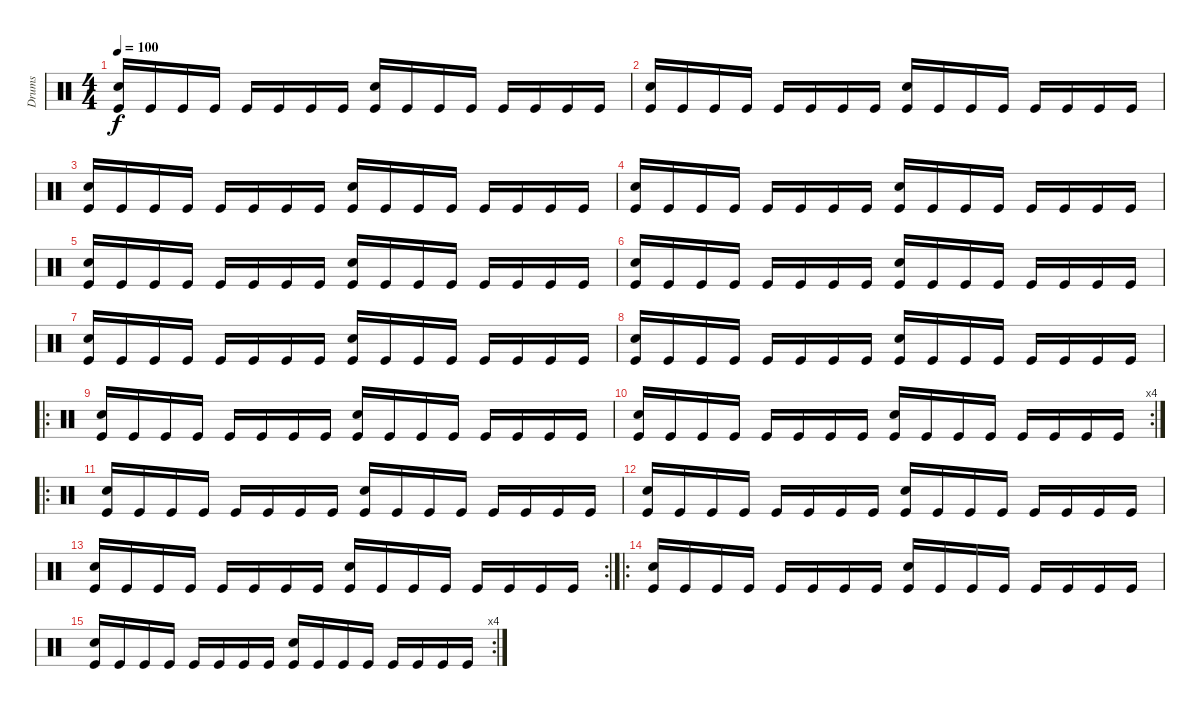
\track ("Drums" "Drums") {instrument percussion}
\staff {score}
\articulation defaults
\ts (4 4)
\tempo 100
\clef neutral
\ks c
("Electric Snare (hit)" "Kick (hit)").16{dy f} "Kick (hit)".16 "Kick (hit)".16 "Kick (hit)".16 "Kick (hit)".16 "Kick (hit)".16 "Kick (hit)".16 "Kick (hit)".16 ("Electric Snare (hit)" "Kick (hit)").16 "Kick (hit)".16 "Kick (hit)".16 "Kick (hit)".16 "Kick (hit)".16 "Kick (hit)".16 "Kick (hit)".16 "Kick (hit)".16 |
("Electric Snare (hit)" "Kick (hit)").16 "Kick (hit)".16 "Kick (hit)".16 "Kick (hit)".16 "Kick (hit)".16 "Kick (hit)".16 "Kick (hit)".16 "Kick (hit)".16 ("Electric Snare (hit)" "Kick (hit)").16 "Kick (hit)".16 "Kick (hit)".16 "Kick (hit)".16 "Kick (hit)".16 "Kick (hit)".16 "Kick (hit)".16 "Kick (hit)".16 |
("Electric Snare (hit)" "Kick (hit)").16 "Kick (hit)".16 "Kick (hit)".16 "Kick (hit)".16 "Kick (hit)".16 "Kick (hit)".16 "Kick (hit)".16 "Kick (hit)".16 ("Electric Snare (hit)" "Kick (hit)").16 "Kick (hit)".16 "Kick (hit)".16 "Kick (hit)".16 "Kick (hit)".16 "Kick (hit)".16 "Kick (hit)".16 "Kick (hit)".16 |
("Electric Snare (hit)" "Kick (hit)").16 "Kick (hit)".16 "Kick (hit)".16 "Kick (hit)".16 "Kick (hit)".16 "Kick (hit)".16 "Kick (hit)".16 "Kick (hit)".16 ("Electric Snare (hit)" "Kick (hit)").16 "Kick (hit)".16 "Kick (hit)".16 "Kick (hit)".16 "Kick (hit)".16 "Kick (hit)".16 "Kick (hit)".16 "Kick (hit)".16 |
("Electric Snare (hit)" "Kick (hit)").16 "Kick (hit)".16 "Kick (hit)".16 "Kick (hit)".16 "Kick (hit)".16 "Kick (hit)".16 "Kick (hit)".16 "Kick (hit)".16 ("Electric Snare (hit)" "Kick (hit)").16 "Kick (hit)".16 "Kick (hit)".16 "Kick (hit)".16 "Kick (hit)".16 "Kick (hit)".16 "Kick (hit)".16 "Kick (hit)".16 |
("Electric Snare (hit)" "Kick (hit)").16 "Kick (hit)".16 "Kick (hit)".16 "Kick (hit)".16 "Kick (hit)".16 "Kick (hit)".16 "Kick (hit)".16 "Kick (hit)".16 ("Electric Snare (hit)" "Kick (hit)").16 "Kick (hit)".16 "Kick (hit)".16 "Kick (hit)".16 "Kick (hit)".16 "Kick (hit)".16 "Kick (hit)".16 "Kick (hit)".16 |
("Electric Snare (hit)" "Kick (hit)").16 "Kick (hit)".16 "Kick (hit)".16 "Kick (hit)".16 "Kick (hit)".16 "Kick (hit)".16 "Kick (hit)".16 "Kick (hit)".16 ("Electric Snare (hit)" "Kick (hit)").16 "Kick (hit)".16 "Kick (hit)".16 "Kick (hit)".16 "Kick (hit)".16 "Kick (hit)".16 "Kick (hit)".16 "Kick (hit)".16 |
("Electric Snare (hit)" "Kick (hit)").16 "Kick (hit)".16 "Kick (hit)".16 "Kick (hit)".16 "Kick (hit)".16 "Kick (hit)".16 "Kick (hit)".16 "Kick (hit)".16 ("Electric Snare (hit)" "Kick (hit)").16 "Kick (hit)".16 "Kick (hit)".16 "Kick (hit)".16 "Kick (hit)".16 "Kick (hit)".16 "Kick (hit)".16 "Kick (hit)".16 |
\ro
("Electric Snare (hit)" "Kick (hit)").16 "Kick (hit)".16 "Kick (hit)".16 "Kick (hit)".16 "Kick (hit)".16 "Kick (hit)".16 "Kick (hit)".16 "Kick (hit)".16 ("Electric Snare (hit)" "Kick (hit)").16 "Kick (hit)".16 "Kick (hit)".16 "Kick (hit)".16 "Kick (hit)".16 "Kick (hit)".16 "Kick (hit)".16 "Kick (hit)".16 |
\rc 4
("Electric Snare (hit)" "Kick (hit)").16 "Kick (hit)".16 "Kick (hit)".16 "Kick (hit)".16 "Kick (hit)".16 "Kick (hit)".16 "Kick (hit)".16 "Kick (hit)".16 ("Electric Snare (hit)" "Kick (hit)").16 "Kick (hit)".16 "Kick (hit)".16 "Kick (hit)".16 "Kick (hit)".16 "Kick (hit)".16 "Kick (hit)".16 "Kick (hit)".16 |
\ro
("Electric Snare (hit)" "Kick (hit)").16 "Kick (hit)".16 "Kick (hit)".16 "Kick (hit)".16 "Kick (hit)".16 "Kick (hit)".16 "Kick (hit)".16 "Kick (hit)".16 ("Electric Snare (hit)" "Kick (hit)").16 "Kick (hit)".16 "Kick (hit)".16 "Kick (hit)".16 "Kick (hit)".16 "Kick (hit)".16 "Kick (hit)".16 "Kick (hit)".16 |
("Electric Snare (hit)" "Kick (hit)").16 "Kick (hit)".16 "Kick (hit)".16 "Kick (hit)".16 "Kick (hit)".16 "Kick (hit)".16 "Kick (hit)".16 "Kick (hit)".16 ("Electric Snare (hit)" "Kick (hit)").16 "Kick (hit)".16 "Kick (hit)".16 "Kick (hit)".16 "Kick (hit)".16 "Kick (hit)".16 "Kick (hit)".16 "Kick (hit)".16 |
\rc 2
("Electric Snare (hit)" "Kick (hit)").16 "Kick (hit)".16 "Kick (hit)".16 "Kick (hit)".16 "Kick (hit)".16 "Kick (hit)".16 "Kick (hit)".16 "Kick (hit)".16 ("Electric Snare (hit)" "Kick (hit)").16 "Kick (hit)".16 "Kick (hit)".16 "Kick (hit)".16 "Kick (hit)".16 "Kick (hit)".16 "Kick (hit)".16 "Kick (hit)".16 |
\ro
("Electric Snare (hit)" "Kick (hit)").16 "Kick (hit)".16 "Kick (hit)".16 "Kick (hit)".16 "Kick (hit)".16 "Kick (hit)".16 "Kick (hit)".16 "Kick (hit)".16 ("Electric Snare (hit)" "Kick (hit)").16 "Kick (hit)".16 "Kick (hit)".16 "Kick (hit)".16 "Kick (hit)".16 "Kick (hit)".16 "Kick (hit)".16 "Kick (hit)".16 |
\rc 4
("Electric Snare (hit)" "Kick (hit)").16 "Kick (hit)".16 "Kick (hit)".16 "Kick (hit)".16 "Kick (hit)".16 "Kick (hit)".16 "Kick (hit)".16 "Kick (hit)".16 ("Electric Snare (hit)" "Kick (hit)").16 "Kick (hit)".16 "Kick (hit)".16 "Kick (hit)".16 "Kick (hit)".16 "Kick (hit)".16 "Kick (hit)".16 "Kick (hit)".16
